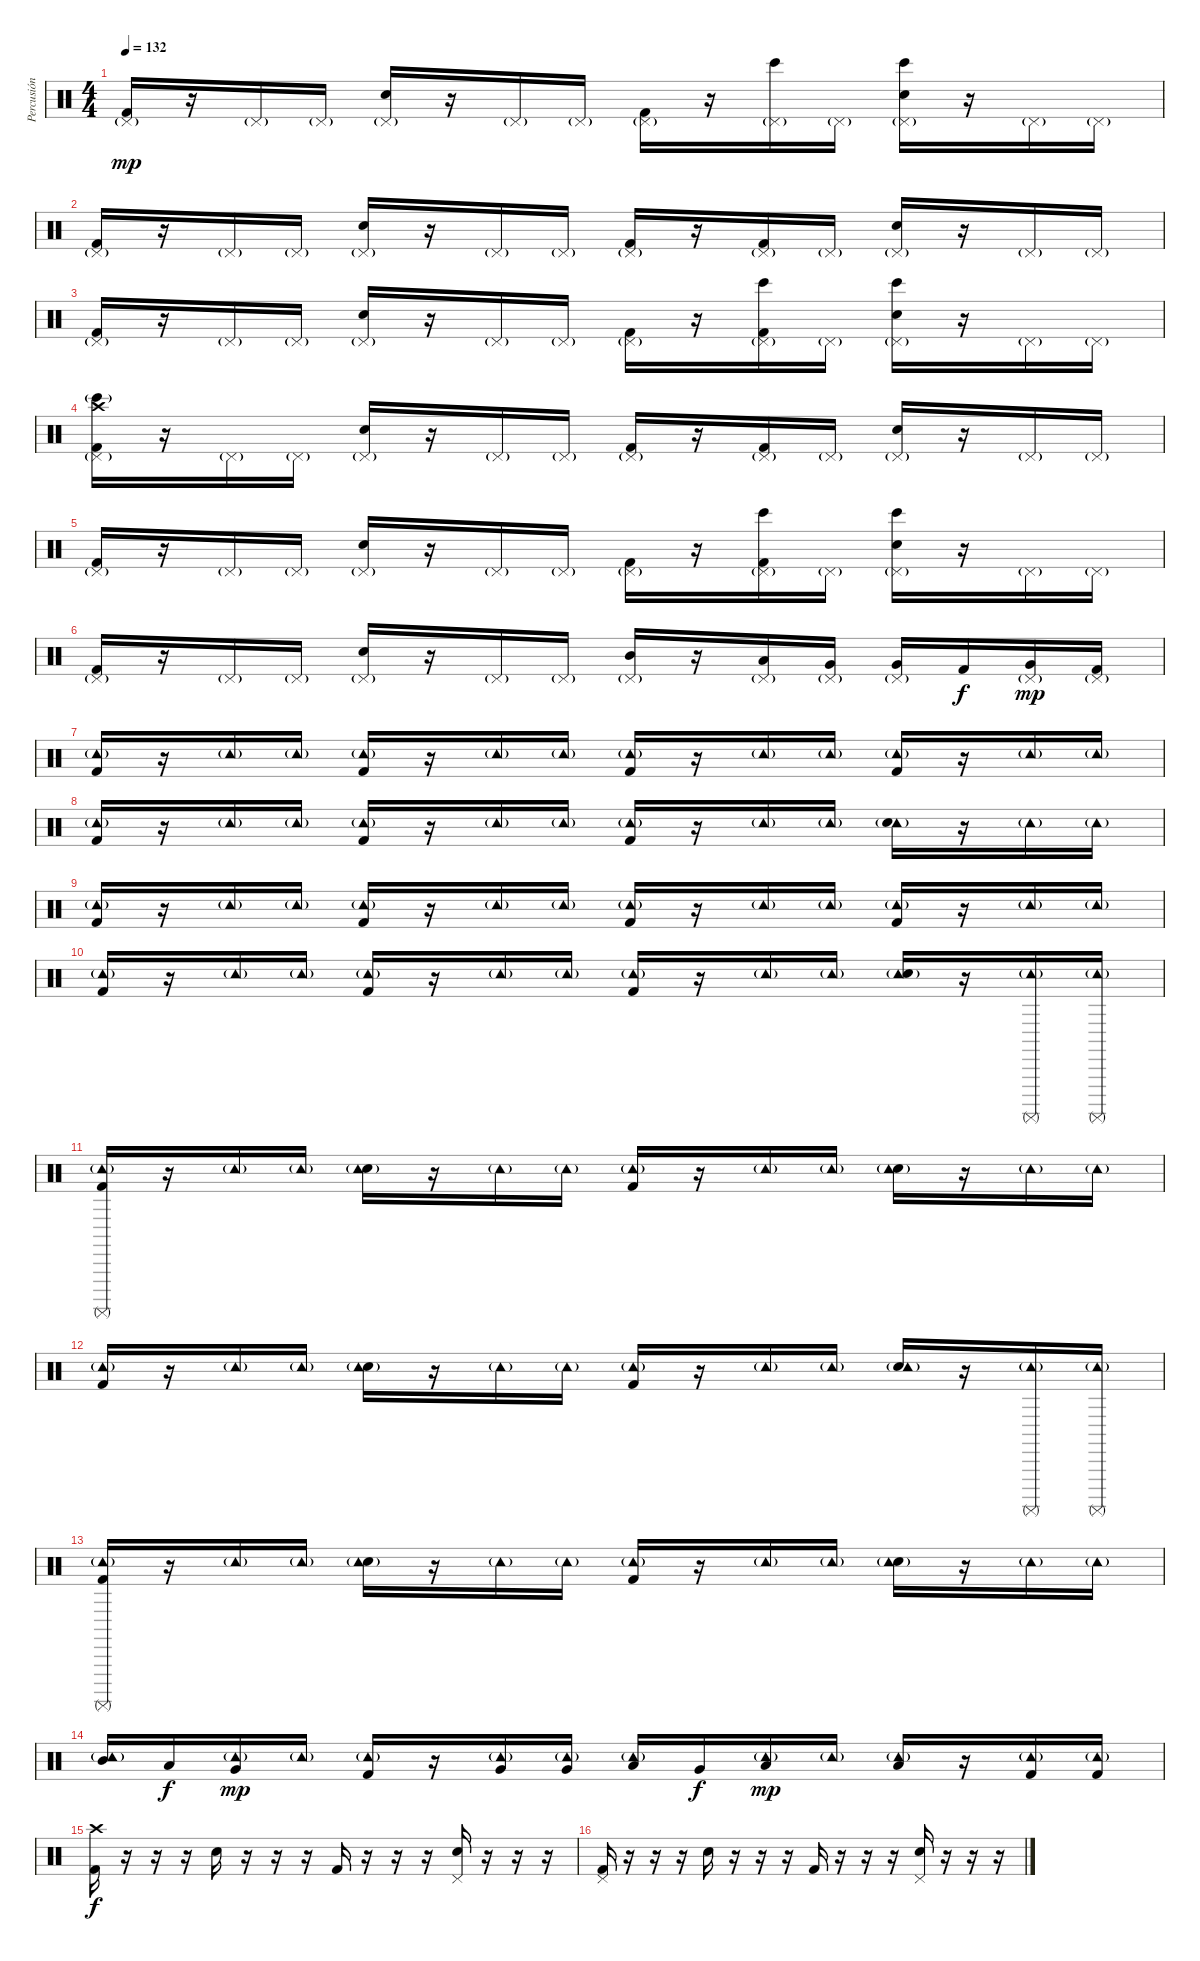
\track ("Percusión" "Percusión") {instrument percussion}
\staff {score}
\articulation defaults
\ts (4 4)
\tempo 132
\clef neutral
\ks c
("Pedal Hi-Hat (hit)"{g} "Kick (hit) 2").16{dy mp} r.16 "Pedal Hi-Hat (hit)"{g}.16 "Pedal Hi-Hat (hit)"{g}.16 ("Pedal Hi-Hat (hit)"{g} "Electric Snare (hit)").16 r.16 "Pedal Hi-Hat (hit)"{g}.16 "Pedal Hi-Hat (hit)"{g}.16 ("Pedal Hi-Hat (hit)"{g} "Kick (hit) 2").16 r.16 ("Pedal Hi-Hat (hit)"{g} "Bongo High (hit)").16 "Pedal Hi-Hat (hit)"{g}.16 ("Pedal Hi-Hat (hit)"{g} "Electric Snare (hit)" "Bongo High (hit)").16 r.16 "Pedal Hi-Hat (hit)"{g}.16 "Pedal Hi-Hat (hit)"{g}.16 |
("Pedal Hi-Hat (hit)"{g} "Kick (hit) 2").16 r.16 "Pedal Hi-Hat (hit)"{g}.16 "Pedal Hi-Hat (hit)"{g}.16 ("Pedal Hi-Hat (hit)"{g} "Electric Snare (hit)").16 r.16 "Pedal Hi-Hat (hit)"{g}.16 "Pedal Hi-Hat (hit)"{g}.16 ("Pedal Hi-Hat (hit)"{g} "Kick (hit) 2").16 r.16 ("Pedal Hi-Hat (hit)"{g} "Kick (hit) 2").16 "Pedal Hi-Hat (hit)"{g}.16 ("Pedal Hi-Hat (hit)"{g} "Electric Snare (hit)").16 r.16 "Pedal Hi-Hat (hit)"{g}.16 "Pedal Hi-Hat (hit)"{g}.16 |
("Pedal Hi-Hat (hit)"{g} "Kick (hit) 2").16 r.16 "Pedal Hi-Hat (hit)"{g}.16 "Pedal Hi-Hat (hit)"{g}.16 ("Pedal Hi-Hat (hit)"{g} "Electric Snare (hit)").16 r.16 "Pedal Hi-Hat (hit)"{g}.16 "Pedal Hi-Hat (hit)"{g}.16 ("Pedal Hi-Hat (hit)"{g} "Kick (hit) 2").16 r.16 ("Pedal Hi-Hat (hit)"{g} "Kick (hit) 2" "Bongo High (hit)").16 "Pedal Hi-Hat (hit)"{g}.16 ("Pedal Hi-Hat (hit)"{g} "Electric Snare (hit)" "Bongo High (hit)").16 r.16 "Pedal Hi-Hat (hit)"{g}.16 "Pedal Hi-Hat (hit)"{g}.16 |
("Pedal Hi-Hat (hit)"{g} "Kick (hit) 2" "Bongo High (hit)"{g} "Crash high (hit)").16 r.16 "Pedal Hi-Hat (hit)"{g}.16 "Pedal Hi-Hat (hit)"{g}.16 ("Pedal Hi-Hat (hit)"{g} "Electric Snare (hit)").16 r.16 "Pedal Hi-Hat (hit)"{g}.16 "Pedal Hi-Hat (hit)"{g}.16 ("Pedal Hi-Hat (hit)"{g} "Kick (hit) 2").16 r.16 ("Pedal Hi-Hat (hit)"{g} "Kick (hit) 2").16 "Pedal Hi-Hat (hit)"{g}.16 ("Pedal Hi-Hat (hit)"{g} "Electric Snare (hit)").16 r.16 "Pedal Hi-Hat (hit)"{g}.16 "Pedal Hi-Hat (hit)"{g}.16 |
("Pedal Hi-Hat (hit)"{g} "Kick (hit) 2").16 r.16 "Pedal Hi-Hat (hit)"{g}.16 "Pedal Hi-Hat (hit)"{g}.16 ("Pedal Hi-Hat (hit)"{g} "Electric Snare (hit)").16 r.16 "Pedal Hi-Hat (hit)"{g}.16 "Pedal Hi-Hat (hit)"{g}.16 ("Pedal Hi-Hat (hit)"{g} "Kick (hit) 2").16 r.16 ("Pedal Hi-Hat (hit)"{g} "Kick (hit) 2" "Bongo High (hit)").16 "Pedal Hi-Hat (hit)"{g}.16 ("Pedal Hi-Hat (hit)"{g} "Electric Snare (hit)" "Bongo High (hit)").16 r.16 "Pedal Hi-Hat (hit)"{g}.16 "Pedal Hi-Hat (hit)"{g}.16 |
("Pedal Hi-Hat (hit)"{g} "Kick (hit) 2").16 r.16 "Pedal Hi-Hat (hit)"{g}.16 "Pedal Hi-Hat (hit)"{g}.16 ("Pedal Hi-Hat (hit)"{g} "Electric Snare (hit)").16 r.16 "Pedal Hi-Hat (hit)"{g}.16 "Pedal Hi-Hat (hit)"{g}.16 ("Pedal Hi-Hat (hit)"{g} "Mid Tom (hit)").16 r.16 ("Pedal Hi-Hat (hit)"{g} "Low Tom (hit)").16 ("Pedal Hi-Hat (hit)"{g} "Very Low Tom (hit)").16 ("Pedal Hi-Hat (hit)"{g} "Very Low Tom (hit)").16 "Kick (hit) 2".16{dy f} ("Pedal Hi-Hat (hit)"{g} "Very Low Tom (hit)").16{dy mp} ("Pedal Hi-Hat (hit)"{g} "Kick (hit) 2").16 |
("Tambourine (hit)"{g} "Kick (hit) 2").16 r.16 "Tambourine (hit)"{g}.16 "Tambourine (hit)"{g}.16 ("Tambourine (hit)"{g} "Kick (hit) 2").16 r.16 "Tambourine (hit)"{g}.16 "Tambourine (hit)"{g}.16 ("Tambourine (hit)"{g} "Kick (hit) 2").16 r.16 "Tambourine (hit)"{g}.16 "Tambourine (hit)"{g}.16 ("Tambourine (hit)"{g} "Kick (hit) 2").16 r.16 "Tambourine (hit)"{g}.16 "Tambourine (hit)"{g}.16 |
("Tambourine (hit)"{g} "Kick (hit) 2").16 r.16 "Tambourine (hit)"{g}.16 "Tambourine (hit)"{g}.16 ("Tambourine (hit)"{g} "Kick (hit) 2").16 r.16 "Tambourine (hit)"{g}.16 "Tambourine (hit)"{g}.16 ("Tambourine (hit)"{g} "Kick (hit) 2").16 r.16 "Tambourine (hit)"{g}.16 "Tambourine (hit)"{g}.16 ("Tambourine (hit)"{g} "Electric Snare (hit)").16 r.16 "Tambourine (hit)"{g}.16 "Tambourine (hit)"{g}.16 |
("Tambourine (hit)"{g} "Kick (hit) 2").16 r.16 "Tambourine (hit)"{g}.16 "Tambourine (hit)"{g}.16 ("Tambourine (hit)"{g} "Kick (hit) 2").16 r.16 "Tambourine (hit)"{g}.16 "Tambourine (hit)"{g}.16 ("Tambourine (hit)"{g} "Kick (hit) 2").16 r.16 "Tambourine (hit)"{g}.16 "Tambourine (hit)"{g}.16 ("Tambourine (hit)"{g} "Kick (hit) 2").16 r.16 "Tambourine (hit)"{g}.16 "Tambourine (hit)"{g}.16 |
("Tambourine (hit)"{g} "Kick (hit) 2").16 r.16 "Tambourine (hit)"{g}.16 "Tambourine (hit)"{g}.16 ("Tambourine (hit)"{g} "Kick (hit) 2").16 r.16 "Tambourine (hit)"{g}.16 "Tambourine (hit)"{g}.16 ("Tambourine (hit)"{g} "Kick (hit) 2").16 r.16 "Tambourine (hit)"{g}.16 "Tambourine (hit)"{g}.16 ("Tambourine (hit)"{g} "Electric Snare (hit)").16 r.16 ("Tambourine (hit)"{g} "Surdo (mute)").16 ("Tambourine (hit)"{g} "Surdo (mute)").16 |
("Kick (hit) 2" "Surdo (mute)" "Tambourine (hit)"{g}).16 r.16 "Tambourine (hit)"{g}.16 "Tambourine (hit)"{g}.16 ("Electric Snare (hit)" "Tambourine (hit)"{g}).16 r.16 "Tambourine (hit)"{g}.16 "Tambourine (hit)"{g}.16 ("Kick (hit) 2" "Tambourine (hit)"{g}).16 r.16 "Tambourine (hit)"{g}.16 "Tambourine (hit)"{g}.16 ("Electric Snare (hit)" "Tambourine (hit)"{g}).16 r.16 "Tambourine (hit)"{g}.16 "Tambourine (hit)"{g}.16 |
("Kick (hit) 2" "Tambourine (hit)"{g}).16 r.16 "Tambourine (hit)"{g}.16 "Tambourine (hit)"{g}.16 ("Electric Snare (hit)" "Tambourine (hit)"{g}).16 r.16 "Tambourine (hit)"{g}.16 "Tambourine (hit)"{g}.16 ("Kick (hit) 2" "Tambourine (hit)"{g}).16 r.16 "Tambourine (hit)"{g}.16 "Tambourine (hit)"{g}.16 ("Electric Snare (hit)" "Tambourine (hit)"{g}).16 r.16 ("Surdo (mute)" "Tambourine (hit)"{g}).16 ("Surdo (mute)" "Tambourine (hit)"{g}).16 |
("Kick (hit) 2" "Surdo (mute)" "Tambourine (hit)"{g}).16 r.16 "Tambourine (hit)"{g}.16 "Tambourine (hit)"{g}.16 ("Electric Snare (hit)" "Tambourine (hit)"{g}).16 r.16 "Tambourine (hit)"{g}.16 "Tambourine (hit)"{g}.16 ("Kick (hit) 2" "Tambourine (hit)"{g}).16 r.16 "Tambourine (hit)"{g}.16 "Tambourine (hit)"{g}.16 ("Electric Snare (hit)" "Tambourine (hit)"{g}).16 r.16 "Tambourine (hit)"{g}.16 "Tambourine (hit)"{g}.16 |
("Mid Tom (hit)" "Tambourine (hit)"{g}).16 "Low Tom (hit)".16{dy f} ("Very Low Tom (hit)" "Tambourine (hit)"{g}).16{dy mp} "Tambourine (hit)"{g}.16 ("Kick (hit) 2" "Tambourine (hit)"{g}).16 r.16 ("Very Low Tom (hit)" "Tambourine (hit)"{g}).16 ("Very Low Tom (hit)" "Tambourine (hit)"{g}).16 ("Low Tom (hit)" "Tambourine (hit)"{g}).16 "Very Low Tom (hit)".16{dy f} ("Low Floor Tom (hit)" "Tambourine (hit)"{g}).16{dy mp} "Tambourine (hit)"{g}.16 ("Low Floor Tom (hit)" "Tambourine (hit)"{g}).16 r.16 ("Kick (hit) 2" "Tambourine (hit)"{g}).16 ("Kick (hit) 2" "Tambourine (hit)"{g}).16 |
("Kick (hit) 2" "Crash high (hit)").16{dy f} r.16 r.16 r.16 "Electric Snare (hit)".16 r.16 r.16 r.16 "Kick (hit) 2".16 r.16 r.16 r.16 ("Pedal Hi-Hat (hit)" "Electric Snare (hit)").16 r.16 r.16 r.16 |
("Pedal Hi-Hat (hit)" "Kick (hit) 2").16 r.16 r.16 r.16 "Electric Snare (hit)".16 r.16 r.16 r.16 "Kick (hit) 2".16 r.16 r.16 r.16 ("Pedal Hi-Hat (hit)" "Electric Snare (hit)").16 r.16 r.16 r.16
